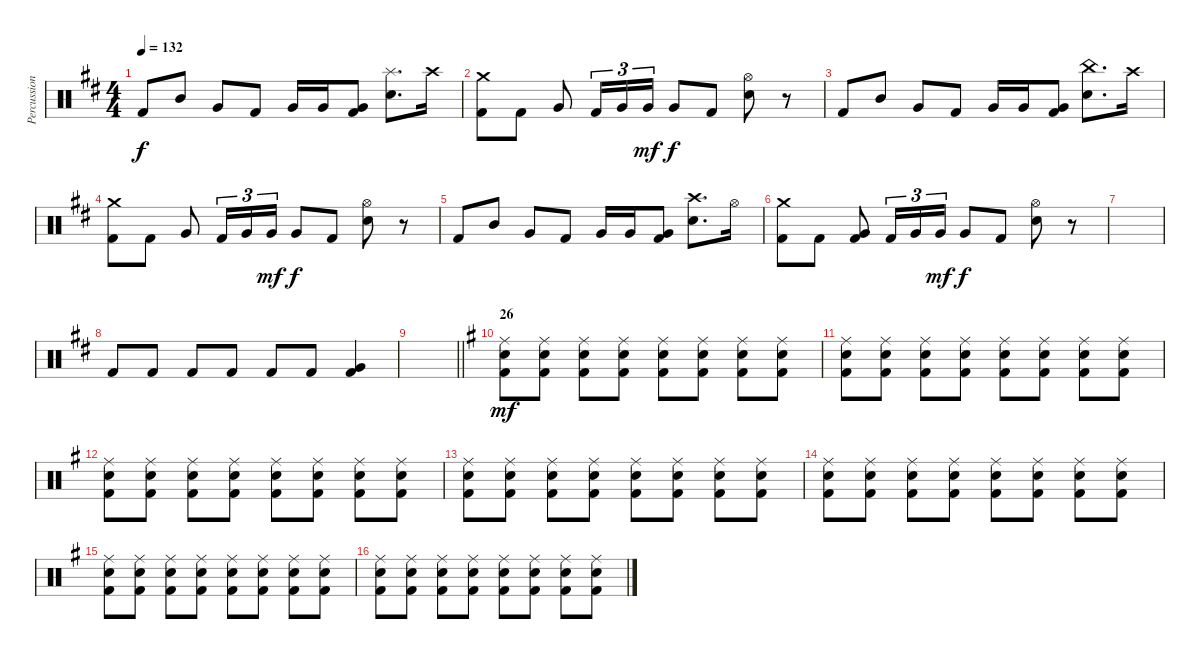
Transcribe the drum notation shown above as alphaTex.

\track ("Percussion" "Percussion") {instrument percussion}
\staff {score}
\articulation defaults
\ts (4 4)
\tempo 132
\clef neutral
\ks bminor "Kick (hit) 2".8{dy f} "Mid Tom (hit)".8 "Very Low Tom (hit)".8 "Kick (hit) 2".8 "Very Low Tom (hit)".16 "Very Low Tom (hit)".16
("Very Low Tom (hit)" "Kick (hit) 2").8 ("Splash (hit)" "Snare (hit) 2").8{d} "Crash high (hit)".16 |
("Crash medium (hit)" "Kick (hit) 2").8 "Kick (hit) 2".8 "Very Low Tom (hit)".8 "Kick (hit) 2".16{tu (3 2)} "Very Low Tom (hit)".16{tu (3 2)} "Very Low Tom (hit)".16{tu (3 2) dy mf} "Very Low Tom (hit)".8{dy f} "Kick (hit) 2".8 ("Hi-Hat (open)" "Snare (hit) 2").8 r.8 |
"Kick (hit) 2".8 "Mid Tom (hit)".8 "Very Low Tom (hit)".8 "Kick (hit) 2".8 "Very Low Tom (hit)".16 "Very Low Tom (hit)".16 ("Very Low Tom (hit)" "Kick (hit) 2").8 ("China (hit)" "Snare (hit) 2").8{d} "Crash high (hit)".16 |
("Crash medium (hit)" "Kick (hit) 2").8 "Kick (hit) 2".8 "Very Low Tom (hit)".8 "Kick (hit) 2".16{tu (3 2)} "Very Low Tom (hit)".16{tu (3 2)} "Very Low Tom (hit)".16{tu (3 2) dy mf} "Very Low Tom (hit)".8{dy f} "Kick (hit) 2".8 ("Hi-Hat (open)" "Snare (hit) 2").8 r.8 |
"Kick (hit) 2".8 "Mid Tom (hit)".8 "Very Low Tom (hit)".8 "Kick (hit) 2".8 "Very Low Tom (hit)".16 "Very Low Tom (hit)".16 ("Very Low Tom (hit)" "Kick (hit) 2").8 ("Crash high (hit)" "Snare (hit) 2").8{d} "Hi-Hat (open)".16 |
("Crash medium (hit)" "Kick (hit) 2").8 "Kick (hit) 2".8 ("Very Low Tom (hit)" "Kick (hit) 2").8 "Kick (hit) 2".16{tu (3 2)} "Very Low Tom (hit)".16{tu (3 2)} "Very Low Tom (hit)".16{tu (3 2) dy mf} "Very Low Tom (hit)".8{dy f} "Kick (hit) 2".8 ("Hi-Hat (open)" "Snare (hit) 2").8 r.8 |
|
"Kick (hit) 2".8 "Kick (hit) 2".8 "Kick (hit) 2".8 "Kick (hit) 2".8 "Kick (hit) 2".8 "Kick (hit) 2".8 ("Very Low Tom (hit)" "Kick (hit) 2").4 |
\barLineRight lightlight
|
\section ("" "26")
\ks eminor
("Ride (middle)" "Snare (hit) 2" "Kick (hit) 2").8{dy mf} ("Ride (middle)" "Snare (hit) 2" "Kick (hit) 2").8 ("Ride (middle)" "Snare (hit) 2" "Kick (hit) 2").8 ("Ride (middle)" "Snare (hit) 2" "Kick (hit) 2").8 ("Ride (middle)" "Snare (hit) 2" "Kick (hit) 2").8 ("Ride (middle)" "Snare (hit) 2" "Kick (hit) 2").8 ("Ride (middle)" "Snare (hit) 2" "Kick (hit) 2").8 ("Ride (middle)" "Snare (hit) 2" "Kick (hit) 2").8 |
("Ride (middle)" "Snare (hit) 2" "Kick (hit) 2").8 ("Ride (middle)" "Snare (hit) 2" "Kick (hit) 2").8 ("Ride (middle)" "Snare (hit) 2" "Kick (hit) 2").8 ("Ride (middle)" "Snare (hit) 2" "Kick (hit) 2").8 ("Ride (middle)" "Snare (hit) 2" "Kick (hit) 2").8 ("Ride (middle)" "Snare (hit) 2" "Kick (hit) 2").8 ("Ride (middle)" "Snare (hit) 2" "Kick (hit) 2").8 ("Ride (middle)" "Snare (hit) 2" "Kick (hit) 2").8 |
("Ride (middle)" "Snare (hit) 2" "Kick (hit) 2").8 ("Ride (middle)" "Snare (hit) 2" "Kick (hit) 2").8 ("Ride (middle)" "Snare (hit) 2" "Kick (hit) 2").8 ("Ride (middle)" "Snare (hit) 2" "Kick (hit) 2").8 ("Ride (middle)" "Snare (hit) 2" "Kick (hit) 2").8 ("Ride (middle)" "Snare (hit) 2" "Kick (hit) 2").8 ("Ride (middle)" "Snare (hit) 2" "Kick (hit) 2").8 ("Ride (middle)" "Snare (hit) 2" "Kick (hit) 2").8 |
("Ride (middle)" "Snare (hit) 2" "Kick (hit) 2").8 ("Ride (middle)" "Snare (hit) 2" "Kick (hit) 2").8 ("Ride (middle)" "Snare (hit) 2" "Kick (hit) 2").8 ("Ride (middle)" "Snare (hit) 2" "Kick (hit) 2").8 ("Ride (middle)" "Snare (hit) 2" "Kick (hit) 2").8 ("Ride (middle)" "Snare (hit) 2" "Kick (hit) 2").8 ("Ride (middle)" "Snare (hit) 2" "Kick (hit) 2").8 ("Ride (middle)" "Snare (hit) 2" "Kick (hit) 2").8 |
("Ride (middle)" "Snare (hit) 2" "Kick (hit) 2").8 ("Ride (middle)" "Snare (hit) 2" "Kick (hit) 2").8 ("Ride (middle)" "Snare (hit) 2" "Kick (hit) 2").8 ("Ride (middle)" "Snare (hit) 2" "Kick (hit) 2").8 ("Ride (middle)" "Snare (hit) 2" "Kick (hit) 2").8 ("Ride (middle)" "Snare (hit) 2" "Kick (hit) 2").8 ("Ride (middle)" "Snare (hit) 2" "Kick (hit) 2").8 ("Ride (middle)" "Snare (hit) 2" "Kick (hit) 2").8 |
("Ride (middle)" "Snare (hit) 2" "Kick (hit) 2").8 ("Ride (middle)" "Snare (hit) 2" "Kick (hit) 2").8 ("Ride (middle)" "Snare (hit) 2" "Kick (hit) 2").8 ("Ride (middle)" "Snare (hit) 2" "Kick (hit) 2").8 ("Ride (middle)" "Snare (hit) 2" "Kick (hit) 2").8 ("Ride (middle)" "Snare (hit) 2" "Kick (hit) 2").8 ("Ride (middle)" "Snare (hit) 2" "Kick (hit) 2").8 ("Ride (middle)" "Snare (hit) 2" "Kick (hit) 2").8 |
("Ride (middle)" "Snare (hit) 2" "Kick (hit) 2").8 ("Ride (middle)" "Snare (hit) 2" "Kick (hit) 2").8 ("Ride (middle)" "Snare (hit) 2" "Kick (hit) 2").8 ("Ride (middle)" "Snare (hit) 2" "Kick (hit) 2").8 ("Ride (middle)" "Snare (hit) 2" "Kick (hit) 2").8 ("Ride (middle)" "Snare (hit) 2" "Kick (hit) 2").8 ("Ride (middle)" "Snare (hit) 2" "Kick (hit) 2").8 ("Ride (middle)" "Snare (hit) 2" "Kick (hit) 2").8
